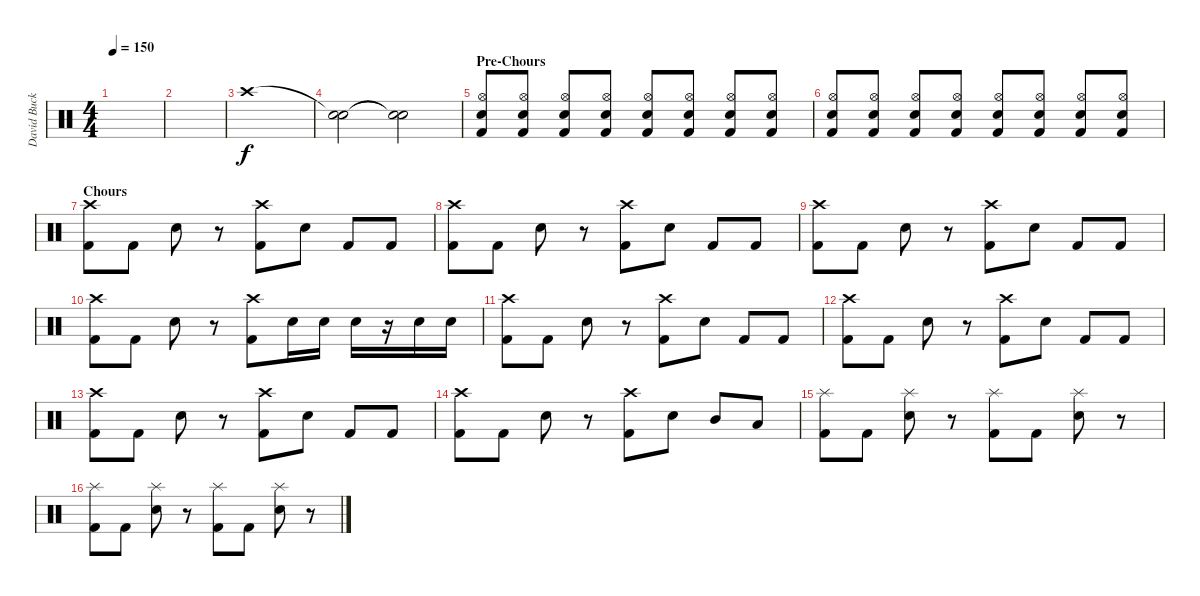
\track ("David Buckner" "David Buck") {instrument percussion}
\staff {score}
\articulation defaults
\ts (4 4)
\tempo 150
\clef neutral
\ks c
|
|
"Crash high (hit)".1 |
("Snare (hit)"{t} "Snare (hit)").2 ("Snare (hit)"{t} "Snare (hit)"{t}).2 |
\section ("" "Pre-Chours")
("Hi-Hat (open)" "Snare (hit) 2" "Kick (hit) 2").8 ("Hi-Hat (open)" "Snare (hit) 2" "Kick (hit) 2").8 ("Hi-Hat (open)" "Snare (hit) 2" "Kick (hit) 2").8 ("Hi-Hat (open)" "Snare (hit) 2" "Kick (hit) 2").8 ("Hi-Hat (open)" "Snare (hit) 2" "Kick (hit) 2").8 ("Hi-Hat (open)" "Snare (hit) 2" "Kick (hit) 2").8 ("Hi-Hat (open)" "Snare (hit) 2" "Kick (hit) 2").8 ("Hi-Hat (open)" "Snare (hit) 2" "Kick (hit) 2").8 |
("Hi-Hat (open)" "Snare (hit) 2" "Kick (hit) 2").8 ("Hi-Hat (open)" "Snare (hit) 2" "Kick (hit) 2").8 ("Hi-Hat (open)" "Snare (hit) 2" "Kick (hit) 2").8 ("Hi-Hat (open)" "Snare (hit) 2" "Kick (hit) 2").8 ("Hi-Hat (open)" "Snare (hit) 2" "Kick (hit) 2").8 ("Hi-Hat (open)" "Snare (hit) 2" "Kick (hit) 2").8 ("Hi-Hat (open)" "Snare (hit) 2" "Kick (hit) 2").8 ("Hi-Hat (open)" "Snare (hit) 2" "Kick (hit) 2").8 |
\section ("" "Chours")
("Crash high (hit)" "Kick (hit) 2").8 "Kick (hit) 2".8 "Snare (hit) 2".8 r.8 ("Crash high (hit)" "Kick (hit) 2").8 "Snare (hit) 2".8 "Kick (hit) 2".8 "Kick (hit) 2".8 |
("Crash high (hit)" "Kick (hit) 2").8 "Kick (hit) 2".8 "Snare (hit) 2".8 r.8 ("Crash high (hit)" "Kick (hit) 2").8 "Snare (hit) 2".8 "Kick (hit) 2".8 "Kick (hit) 2".8 |
("Crash high (hit)" "Kick (hit) 2").8 "Kick (hit) 2".8 "Snare (hit) 2".8 r.8 ("Crash high (hit)" "Kick (hit) 2").8 "Snare (hit) 2".8 "Kick (hit) 2".8 "Kick (hit) 2".8 |
("Crash high (hit)" "Kick (hit) 2").8 "Kick (hit) 2".8 "Snare (hit) 2".8 r.8 ("Crash high (hit)" "Kick (hit) 2").8 "Snare (hit) 2".16 "Snare (hit) 2".16 "Snare (hit) 2".16 r.16 "Snare (hit) 2".16 "Snare (hit) 2".16 |
("Crash high (hit)" "Kick (hit) 2").8 "Kick (hit) 2".8 "Snare (hit) 2".8 r.8 ("Crash high (hit)" "Kick (hit) 2").8 "Snare (hit) 2".8 "Kick (hit) 2".8 "Kick (hit) 2".8 |
("Crash high (hit)" "Kick (hit) 2").8 "Kick (hit) 2".8 "Snare (hit) 2".8 r.8 ("Crash high (hit)" "Kick (hit) 2").8 "Snare (hit) 2".8 "Kick (hit) 2".8 "Kick (hit) 2".8 |
("Crash high (hit)" "Kick (hit) 2").8 "Kick (hit) 2".8 "Snare (hit) 2".8 r.8 ("Crash high (hit)" "Kick (hit) 2").8 "Snare (hit) 2".8 "Kick (hit) 2".8 "Kick (hit) 2".8 |
("Crash high (hit)" "Kick (hit) 2").8 "Kick (hit) 2".8 "Snare (hit) 2".8 r.8 ("Crash high (hit)" "Kick (hit) 2").8 "Snare (hit) 2".8 "Mid Tom (hit)".8 "Low Tom (hit)".8 |
("Splash (hit)" "Kick (hit) 2").8 "Kick (hit) 2".8 ("Splash (hit)" "Snare (hit) 2").8 r.8 ("Splash (hit)" "Kick (hit) 2").8 "Kick (hit) 2".8 ("Splash (hit)" "Snare (hit) 2").8 r.8 |
("Splash (hit)" "Kick (hit) 2").8 "Kick (hit) 2".8 ("Splash (hit)" "Snare (hit) 2").8 r.8 ("Splash (hit)" "Kick (hit) 2").8 "Kick (hit) 2".8 ("Splash (hit)" "Snare (hit) 2").8 r.8
